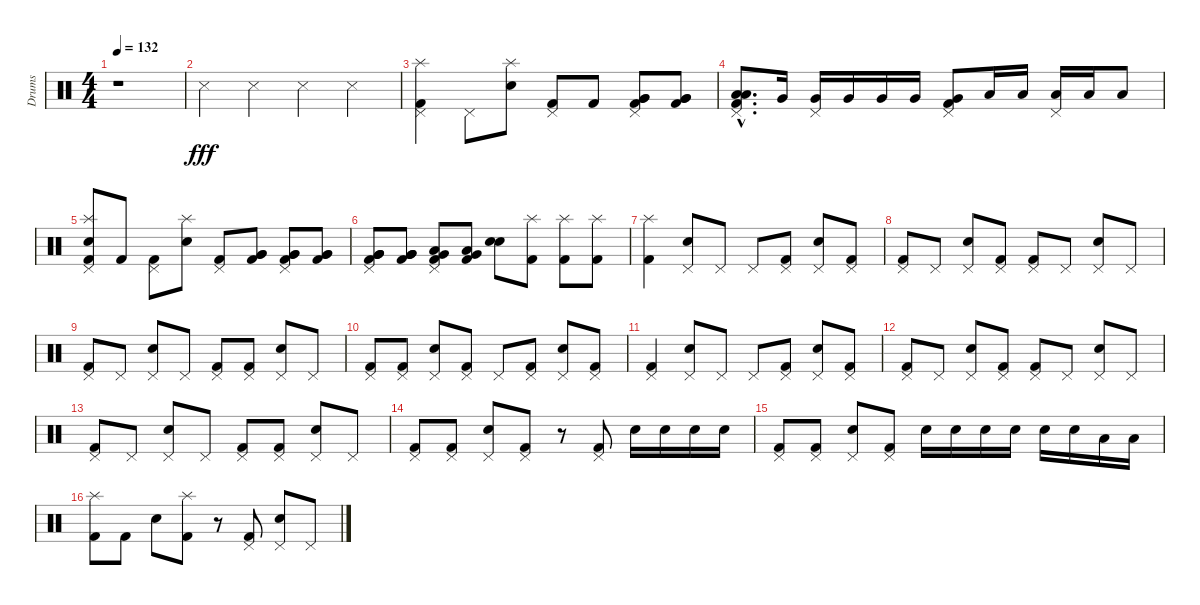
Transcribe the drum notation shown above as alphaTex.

\track ("Drums" "Drums") {instrument percussion}
\staff {score}
\articulation defaults
\ts (4 4)
\tempo 132
\clef neutral
\ks c
r.1{dy fff} |
"Snare (side stick) 3".4 "Snare (side stick) 3".4 "Snare (side stick) 3".4 "Snare (side stick) 3".4 |
("Kick (hit) 2" "Pedal Hi-Hat (hit)" "Splash (hit)").4 "Pedal Hi-Hat (hit)".8 ("Electric Snare (hit)" "Splash (hit)").8 ("Kick (hit) 2" "Pedal Hi-Hat (hit)").8 "Kick (hit) 2".8 ("Very Low Tom (hit)" "Very Low Tom (hit)" "Kick (hit) 2" "Pedal Hi-Hat (hit)").8 ("Very Low Tom (hit)" "Very Low Tom (hit)" "Kick (hit) 2").8 |
("Low Floor Tom (hit)"{hac} "Low Floor Tom (hit)"{hac} "Kick (hit) 2"{hac} "Pedal Hi-Hat (hit)").8{d} "Very Low Tom (hit)".16 ("Very Low Tom (hit)" "Pedal Hi-Hat (hit)").16 "Very Low Tom (hit)".16 "Very Low Tom (hit)".16 "Very Low Tom (hit)".16 ("Kick (hit) 2" "Very Low Tom (hit)" "Pedal Hi-Hat (hit)").8 "Low Floor Tom (hit)".16 "Low Floor Tom (hit)".16 ("Low Floor Tom (hit)" "Pedal Hi-Hat (hit)").16 "Low Floor Tom (hit)".16 "Low Floor Tom (hit)".8 |
("Kick (hit) 2" "Electric Snare (hit)" "Pedal Hi-Hat (hit)" "Splash (hit)").8 "Kick (hit) 2".8 ("Pedal Hi-Hat (hit)" "Kick (hit) 2").8 ("Splash (hit)" "Electric Snare (hit)").8 ("Kick (hit) 2" "Pedal Hi-Hat (hit)").8 ("Very Low Tom (hit)" "Kick (hit) 2" "Very Low Tom (hit)").8 ("Very Low Tom (hit)" "Kick (hit) 2" "Pedal Hi-Hat (hit)" "Very Low Tom (hit)").8 ("Very Low Tom (hit)" "Kick (hit) 2" "Very Low Tom (hit)").8 |
("Very Low Tom (hit)" "Pedal Hi-Hat (hit)" "Kick (hit) 2" "Very Low Tom (hit)" "Very Low Tom (hit)").8 ("Very Low Tom (hit)" "Very Low Tom (hit)" "Kick (hit) 2" "Very Low Tom (hit)").8 ("Very Low Tom (hit)" "Pedal Hi-Hat (hit)" "Kick (hit) 2" "Low Floor Tom (hit)").8 ("Very Low Tom (hit)" "Kick (hit) 2" "Low Floor Tom (hit)").8 ("Snare (hit) 2" "Electric Snare (hit)").8 ("Splash (hit)" "Kick (hit) 2").8 ("Splash (hit)" "Kick (hit) 2").8 ("Splash (hit)" "Kick (hit) 2").8 |
("Kick (hit) 2" "Splash (hit)").4 ("Electric Snare (hit)" "Pedal Hi-Hat (hit)").8 "Pedal Hi-Hat (hit)".8 "Pedal Hi-Hat (hit)".8 ("Kick (hit) 2" "Pedal Hi-Hat (hit)").8 ("Electric Snare (hit)" "Pedal Hi-Hat (hit)").8 ("Kick (hit) 2" "Pedal Hi-Hat (hit)").8 |
("Kick (hit) 2" "Pedal Hi-Hat (hit)").8 "Pedal Hi-Hat (hit)".8 ("Electric Snare (hit)" "Pedal Hi-Hat (hit)").8 ("Kick (hit) 2" "Pedal Hi-Hat (hit)").8 ("Kick (hit) 2" "Pedal Hi-Hat (hit)").8 "Pedal Hi-Hat (hit)".8 ("Electric Snare (hit)" "Pedal Hi-Hat (hit)").8 "Pedal Hi-Hat (hit)".8 |
("Kick (hit) 2" "Pedal Hi-Hat (hit)").8 "Pedal Hi-Hat (hit)".8 ("Electric Snare (hit)" "Pedal Hi-Hat (hit)").8 "Pedal Hi-Hat (hit)".8 ("Kick (hit) 2" "Pedal Hi-Hat (hit)").8 ("Kick (hit) 2" "Pedal Hi-Hat (hit)").8 ("Electric Snare (hit)" "Pedal Hi-Hat (hit)").8 "Pedal Hi-Hat (hit)".8 |
("Kick (hit) 2" "Pedal Hi-Hat (hit)").8 ("Kick (hit) 2" "Pedal Hi-Hat (hit)").8 ("Electric Snare (hit)" "Pedal Hi-Hat (hit)").8 ("Kick (hit) 2" "Pedal Hi-Hat (hit)").8 "Pedal Hi-Hat (hit)".8 ("Kick (hit) 2" "Pedal Hi-Hat (hit)").8 ("Electric Snare (hit)" "Pedal Hi-Hat (hit)").8 ("Kick (hit) 2" "Pedal Hi-Hat (hit)").8 |
("Kick (hit) 2" "Pedal Hi-Hat (hit)").4 ("Electric Snare (hit)" "Pedal Hi-Hat (hit)").8 "Pedal Hi-Hat (hit)".8 "Pedal Hi-Hat (hit)".8 ("Kick (hit) 2" "Pedal Hi-Hat (hit)").8 ("Electric Snare (hit)" "Pedal Hi-Hat (hit)").8 ("Kick (hit) 2" "Pedal Hi-Hat (hit)").8 |
("Kick (hit) 2" "Pedal Hi-Hat (hit)").8 "Pedal Hi-Hat (hit)".8 ("Electric Snare (hit)" "Pedal Hi-Hat (hit)").8 ("Kick (hit) 2" "Pedal Hi-Hat (hit)").8 ("Kick (hit) 2" "Pedal Hi-Hat (hit)").8 "Pedal Hi-Hat (hit)".8 ("Electric Snare (hit)" "Pedal Hi-Hat (hit)").8 "Pedal Hi-Hat (hit)".8 |
("Kick (hit) 2" "Pedal Hi-Hat (hit)").8 "Pedal Hi-Hat (hit)".8 ("Electric Snare (hit)" "Pedal Hi-Hat (hit)").8 "Pedal Hi-Hat (hit)".8 ("Kick (hit) 2" "Pedal Hi-Hat (hit)").8 ("Kick (hit) 2" "Pedal Hi-Hat (hit)").8 ("Electric Snare (hit)" "Pedal Hi-Hat (hit)").8 "Pedal Hi-Hat (hit)".8 |
("Kick (hit) 2" "Pedal Hi-Hat (hit)").8 ("Kick (hit) 2" "Pedal Hi-Hat (hit)").8 ("Electric Snare (hit)" "Pedal Hi-Hat (hit)").8 ("Kick (hit) 2" "Pedal Hi-Hat (hit)").8 r.8 ("Kick (hit) 2" "Pedal Hi-Hat (hit)").8 "Electric Snare (hit)".16 "Electric Snare (hit)".16 "Electric Snare (hit)".16 "Electric Snare (hit)".16 |
("Kick (hit) 2" "Pedal Hi-Hat (hit)").8 ("Kick (hit) 2" "Pedal Hi-Hat (hit)").8 ("Electric Snare (hit)" "Pedal Hi-Hat (hit)").8 ("Kick (hit) 2" "Pedal Hi-Hat (hit)").8 "Electric Snare (hit)".16 "Electric Snare (hit)".16 "Electric Snare (hit)".16 "Electric Snare (hit)".16 "Electric Snare (hit)".16 "Electric Snare (hit)".16 "Low Tom (hit)".16 "Low Tom (hit)".16 |
("Kick (hit) 2" "Splash (hit)").8 "Kick (hit) 2".8 "Electric Snare (hit)".8 ("Splash (hit)" "Kick (hit) 2").8 r.8 ("Kick (hit) 2" "Pedal Hi-Hat (hit)").8 ("Electric Snare (hit)" "Pedal Hi-Hat (hit)").8 "Pedal Hi-Hat (hit)".8
